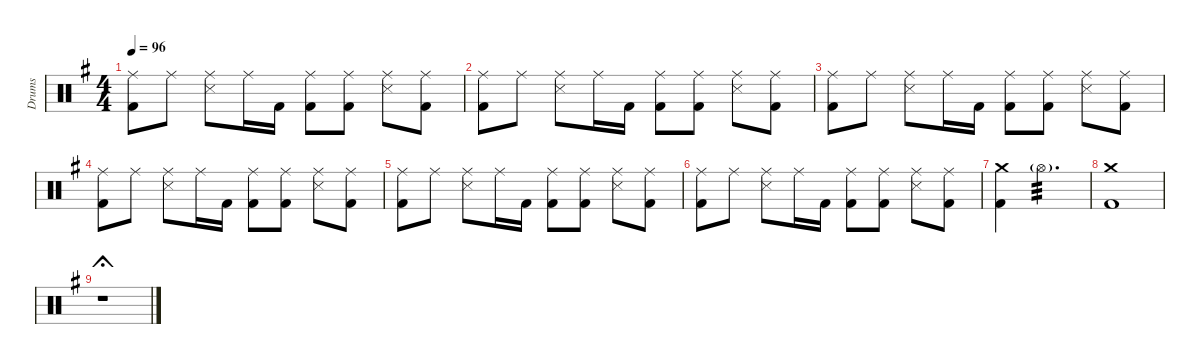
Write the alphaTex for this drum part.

\defaultSystemsLayout 4
\hideDynamics
\bracketExtendMode nobrackets
\otherSystemsTrackNameOrientation horizontal
\track ("Drumkit" "Drums") {instrument percussion}
\staff {score}
\articulation defaults
\ts (4 4)
\tempo 96
\clef neutral
\ks g
("Kick (hit) 2"{acc forcenatural} "Ride (middle)"{acc forcenatural}).8{dy f beam Down} "Ride (middle)"{acc forcenatural}.8{beam Down} ("Snare (side stick) 3"{acc forcenatural} "Ride (middle)"{acc forcenatural}).8{beam Down} "Ride (middle)"{acc forcenatural}.16{beam Down} "Kick (hit) 2"{acc forcenatural}.16{beam Down} ("Kick (hit) 2"{acc forcenatural} "Ride (middle)"{acc forcenatural}).8{beam Down} ("Kick (hit) 2"{acc forcenatural} "Ride (middle)"{acc forcenatural}).8{beam Down} ("Snare (side stick) 3"{acc forcenatural} "Ride (middle)"{acc forcenatural}).8{beam Down} ("Kick (hit) 2"{acc forcenatural} "Ride (middle)"{acc forcenatural}).8{beam Down} |
("Kick (hit) 2"{acc forcenatural} "Ride (middle)"{acc forcenatural}).8{beam Down} "Ride (middle)"{acc forcenatural}.8{beam Down} ("Snare (side stick) 3"{acc forcenatural} "Ride (middle)"{acc forcenatural}).8{beam Down} "Ride (middle)"{acc forcenatural}.16{beam Down} "Kick (hit) 2"{acc forcenatural}.16{beam Down} ("Kick (hit) 2"{acc forcenatural} "Ride (middle)"{acc forcenatural}).8{beam Down} ("Kick (hit) 2"{acc forcenatural} "Ride (middle)"{acc forcenatural}).8{beam Down} ("Snare (side stick) 3"{acc forcenatural} "Ride (middle)"{acc forcenatural}).8{beam Down} ("Kick (hit) 2"{acc forcenatural} "Ride (middle)"{acc forcenatural}).8{beam Down} |
("Kick (hit) 2"{acc forcenatural} "Ride (middle)"{acc forcenatural}).8{beam Down} "Ride (middle)"{acc forcenatural}.8{beam Down} ("Snare (side stick) 3"{acc forcenatural} "Ride (middle)"{acc forcenatural}).8{beam Down} "Ride (middle)"{acc forcenatural}.16{beam Down} "Kick (hit) 2"{acc forcenatural}.16{beam Down} ("Kick (hit) 2"{acc forcenatural} "Ride (middle)"{acc forcenatural}).8{beam Down} ("Kick (hit) 2"{acc forcenatural} "Ride (middle)"{acc forcenatural}).8{beam Down} ("Snare (side stick) 3"{acc forcenatural} "Ride (middle)"{acc forcenatural}).8{beam Down} ("Kick (hit) 2"{acc forcenatural} "Ride (middle)"{acc forcenatural}).8{beam Down} |
("Kick (hit) 2"{acc forcenatural} "Ride (middle)"{acc forcenatural}).8{beam Down} "Ride (middle)"{acc forcenatural}.8{beam Down} ("Snare (side stick) 3"{acc forcenatural} "Ride (middle)"{acc forcenatural}).8{beam Down} "Ride (middle)"{acc forcenatural}.16{beam Down} "Kick (hit) 2"{acc forcenatural}.16{beam Down} ("Kick (hit) 2"{acc forcenatural} "Ride (middle)"{acc forcenatural}).8{beam Down} ("Kick (hit) 2"{acc forcenatural} "Ride (middle)"{acc forcenatural}).8{beam Down} ("Snare (side stick) 3"{acc forcenatural} "Ride (middle)"{acc forcenatural}).8{beam Down} ("Kick (hit) 2"{acc forcenatural} "Ride (middle)"{acc forcenatural}).8{beam Down} |
("Kick (hit) 2"{acc forcenatural} "Ride (middle)"{acc forcenatural}).8{beam Down} "Ride (middle)"{acc forcenatural}.8{beam Down} ("Snare (side stick) 3"{acc forcenatural} "Ride (middle)"{acc forcenatural}).8{beam Down} "Ride (middle)"{acc forcenatural}.16{beam Down} "Kick (hit) 2"{acc forcenatural}.16{beam Down} ("Kick (hit) 2"{acc forcenatural} "Ride (middle)"{acc forcenatural}).8{beam Down} ("Kick (hit) 2"{acc forcenatural} "Ride (middle)"{acc forcenatural}).8{beam Down} ("Snare (side stick) 3"{acc forcenatural} "Ride (middle)"{acc forcenatural}).8{beam Down} ("Kick (hit) 2"{acc forcenatural} "Ride (middle)"{acc forcenatural}).8{beam Down} |
("Kick (hit) 2"{acc forcenatural} "Ride (middle)"{acc forcenatural}).8{beam Down} "Ride (middle)"{acc forcenatural}.8{beam Down} ("Snare (side stick) 3"{acc forcenatural} "Ride (middle)"{acc forcenatural}).8{beam Down} "Ride (middle)"{acc forcenatural}.16{beam Down} "Kick (hit) 2"{acc forcenatural}.16{beam Down} ("Kick (hit) 2"{acc forcenatural} "Ride (middle)"{acc forcenatural}).8{beam Down} ("Kick (hit) 2"{acc forcenatural} "Ride (middle)"{acc forcenatural}).8{beam Down} ("Snare (side stick) 3"{acc forcenatural} "Ride (middle)"{acc forcenatural}).8{beam Down} ("Kick (hit) 2"{acc forcenatural} "Ride (middle)"{acc forcenatural}).8{beam Down} |
("Crash medium (hit)"{acc forcenatural} "Kick (hit) 2"{acc forcenatural}).4{beam Down} "Hi-Hat (open)"{g acc forcenatural}.2{d tp 3 dy mf beam Down} |
("Crash medium (hit)"{acc forcenatural} "Kick (hit) 2"{acc forcenatural}).1{dy f beam Down} |
\tempo (40 0.5 hide)
r.1{fermata (short 0.22) beam Down}
